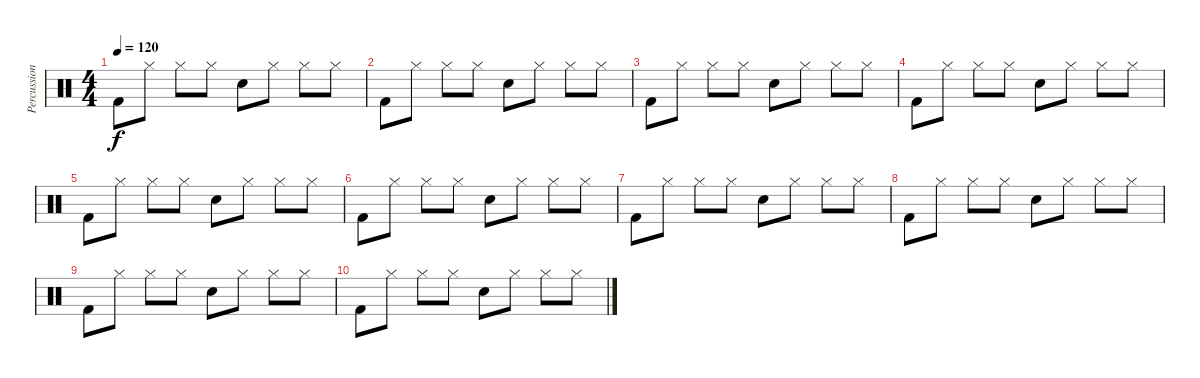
\track ("Percussions" "Percussion") {instrument percussion}
\staff {score}
\articulation defaults
\ts (4 4)
\tempo 120
\clef neutral
\ks c "Kick (hit) 2".8{dy f} "Hi-Hat (closed)".8 "Hi-Hat (closed)".8 "Hi-Hat (closed)".8 "Electric Snare (hit)".8 "Hi-Hat (closed)".8 "Hi-Hat (closed)".8 "Hi-Hat (closed)".8
|
"Kick (hit) 2".8 "Hi-Hat (closed)".8 "Hi-Hat (closed)".8 "Hi-Hat (closed)".8 "Electric Snare (hit)".8 "Hi-Hat (closed)".8 "Hi-Hat (closed)".8 "Hi-Hat (closed)".8 |
"Kick (hit) 2".8 "Hi-Hat (closed)".8 "Hi-Hat (closed)".8 "Hi-Hat (closed)".8 "Electric Snare (hit)".8 "Hi-Hat (closed)".8 "Hi-Hat (closed)".8 "Hi-Hat (closed)".8 |
"Kick (hit) 2".8 "Hi-Hat (closed)".8 "Hi-Hat (closed)".8 "Hi-Hat (closed)".8 "Electric Snare (hit)".8 "Hi-Hat (closed)".8 "Hi-Hat (closed)".8 "Hi-Hat (closed)".8 |
"Kick (hit) 2".8 "Hi-Hat (closed)".8 "Hi-Hat (closed)".8 "Hi-Hat (closed)".8 "Electric Snare (hit)".8 "Hi-Hat (closed)".8 "Hi-Hat (closed)".8 "Hi-Hat (closed)".8 |
"Kick (hit) 2".8 "Hi-Hat (closed)".8 "Hi-Hat (closed)".8 "Hi-Hat (closed)".8 "Electric Snare (hit)".8 "Hi-Hat (closed)".8 "Hi-Hat (closed)".8 "Hi-Hat (closed)".8 |
"Kick (hit) 2".8 "Hi-Hat (closed)".8 "Hi-Hat (closed)".8 "Hi-Hat (closed)".8 "Electric Snare (hit)".8 "Hi-Hat (closed)".8 "Hi-Hat (closed)".8 "Hi-Hat (closed)".8 |
"Kick (hit) 2".8 "Hi-Hat (closed)".8 "Hi-Hat (closed)".8 "Hi-Hat (closed)".8 "Electric Snare (hit)".8 "Hi-Hat (closed)".8 "Hi-Hat (closed)".8 "Hi-Hat (closed)".8 |
"Kick (hit) 2".8 "Hi-Hat (closed)".8 "Hi-Hat (closed)".8 "Hi-Hat (closed)".8 "Electric Snare (hit)".8 "Hi-Hat (closed)".8 "Hi-Hat (closed)".8 "Hi-Hat (closed)".8 |
"Kick (hit) 2".8 "Hi-Hat (closed)".8 "Hi-Hat (closed)".8 "Hi-Hat (closed)".8 "Electric Snare (hit)".8 "Hi-Hat (closed)".8 "Hi-Hat (closed)".8 "Hi-Hat (closed)".8
